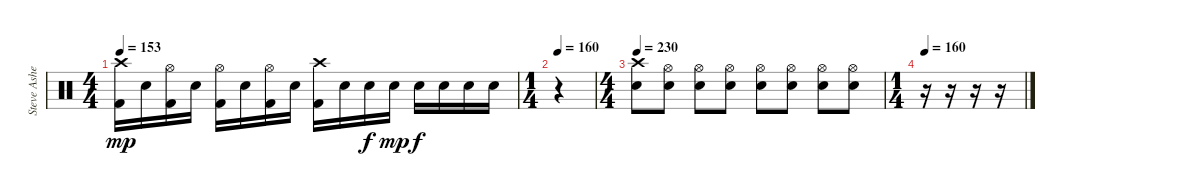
\track ("Steve Asheim" "Steve Ashe") {instrument percussion}
\staff {score}
\articulation defaults
\ts (4 4)
\tempo 153
\clef neutral
\ks c
("Crash high (hit)" "Kick (hit) 2").16{dy mp} "Electric Snare (hit)".16 ("Hi-Hat (open)" "Kick (hit) 2").16 "Electric Snare (hit)".16 ("Hi-Hat (open)" "Kick (hit) 2").16 "Electric Snare (hit)".16 ("Hi-Hat (open)" "Kick (hit) 2").16 "Electric Snare (hit)".16 ("Crash high (hit)" "Kick (hit) 2").16 "Electric Snare (hit)".16 "Electric Snare (hit)".16{dy f} "Electric Snare (hit)".16{dy mp} "Electric Snare (hit)".16{dy f} "Electric Snare (hit)".16 "Electric Snare (hit)".16 "Electric Snare (hit)".16 |
\ts (1 4)
\tempo 160
r.4 |
\ts (4 4)
\tempo 230
("Crash high (hit)" "Electric Snare (hit)").8 ("Hi-Hat (open)" "Electric Snare (hit)").8 ("Hi-Hat (open)" "Electric Snare (hit)").8 ("Hi-Hat (open)" "Electric Snare (hit)").8 ("Hi-Hat (open)" "Electric Snare (hit)").8 ("Hi-Hat (open)" "Electric Snare (hit)").8 ("Hi-Hat (open)" "Electric Snare (hit)").8 ("Hi-Hat (open)" "Electric Snare (hit)").8 |
\ts (1 4)
\tempo 160
r.16 r.16 r.16 r.16
